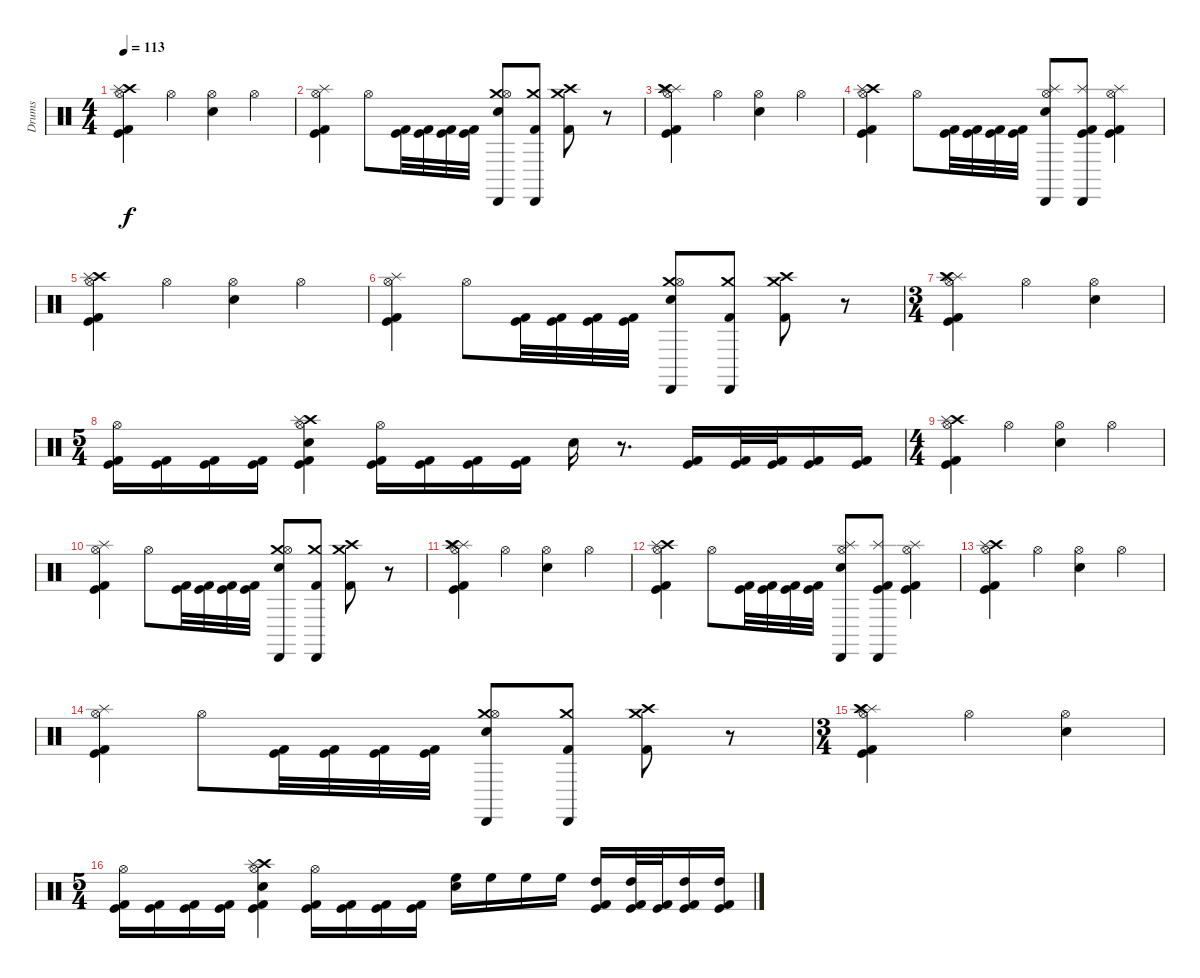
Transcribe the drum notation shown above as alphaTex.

\track ("Drums" "Drums") {instrument percussion}
\staff {score}
\articulation defaults
\ts (4 4)
\tempo 113
\clef neutral
\ks c
("Hi-Hat (open)" "Crash high (hit)" "Kick (hit)" "Kick (hit) 2" "Splash (hit)").4{dy f} "Hi-Hat (open)".4 ("Hi-Hat (open)" "Electric Snare (hit)").4 "Hi-Hat (open)".4 |
("Hi-Hat (open)" "Kick (hit)" "Kick (hit) 2" "Splash (hit)").4 "Hi-Hat (open)".8 ("Kick (hit)" "Kick (hit) 2").32 ("Kick (hit)" "Kick (hit) 2").32 ("Kick (hit)" "Kick (hit) 2").32 ("Kick (hit)" "Kick (hit) 2").32 ("Crash medium (hit)" "Electric Snare (hit)" "Hi-Hat (open)" "Cabasa (hit)").8 ("Kick (hit) 2" "Crash medium (hit)" "Cabasa (hit)").8 ("Kick (hit) 2" "Crash high (hit)" "Crash medium (hit)").8 r.8 |
("Splash (hit)" "Kick (hit)" "Kick (hit) 2" "Crash high (hit)" "Splash (hit)" "Hi-Hat (open)").4 "Hi-Hat (open)".4 ("Electric Snare (hit)" "Hi-Hat (open)").4 "Hi-Hat (open)".4 |
("Hi-Hat (open)" "Kick (hit)" "Kick (hit) 2" "Crash high (hit)" "Splash (hit)").4 "Hi-Hat (open)".8 ("Kick (hit) 2" "Kick (hit)").32 ("Kick (hit) 2" "Kick (hit)").32 ("Kick (hit) 2" "Kick (hit)").32 ("Kick (hit) 2" "Kick (hit)").32 ("Cabasa (hit)" "Splash (hit)" "Electric Snare (hit)" "Hi-Hat (open)").8 ("Kick (hit)" "Kick (hit) 2" "Cabasa (hit)" "Splash (hit)").8 ("Kick (hit)" "Kick (hit) 2" "Splash (hit)" "Hi-Hat (open)").4 |
("Hi-Hat (open)" "Crash high (hit)" "Kick (hit)" "Kick (hit) 2" "Splash (hit)").4 "Hi-Hat (open)".4 ("Hi-Hat (open)" "Electric Snare (hit)").4 "Hi-Hat (open)".4 |
("Hi-Hat (open)" "Kick (hit)" "Kick (hit) 2" "Splash (hit)").4 "Hi-Hat (open)".8 ("Kick (hit)" "Kick (hit) 2").32 ("Kick (hit)" "Kick (hit) 2").32 ("Kick (hit)" "Kick (hit) 2").32 ("Kick (hit)" "Kick (hit) 2").32 ("Crash medium (hit)" "Electric Snare (hit)" "Hi-Hat (open)" "Cabasa (hit)").8 ("Kick (hit) 2" "Crash medium (hit)" "Cabasa (hit)").8 ("Kick (hit) 2" "Crash high (hit)" "Crash medium (hit)").8 r.8 |
\ts (3 4)
("Splash (hit)" "Kick (hit)" "Kick (hit) 2" "Crash high (hit)" "Splash (hit)" "Hi-Hat (open)").4 "Hi-Hat (open)".4 ("Electric Snare (hit)" "Hi-Hat (open)").4 |
\ts (5 4)
("Kick (hit)" "Kick (hit) 2" "Hi-Hat (open)").16 ("Kick (hit)" "Kick (hit) 2").16 ("Kick (hit)" "Kick (hit) 2").16 ("Kick (hit)" "Kick (hit) 2").16 ("Electric Snare (hit)" "Hi-Hat (open)" "Kick (hit)" "Kick (hit) 2" "Crash high (hit)" "Splash (hit)").4 ("Kick (hit)" "Kick (hit) 2" "Hi-Hat (open)").16 ("Kick (hit)" "Kick (hit) 2").16 ("Kick (hit)" "Kick (hit) 2").16 ("Kick (hit)" "Kick (hit) 2").16 "Electric Snare (hit)".16 r.8{d} ("Kick (hit)" "Kick (hit) 2").16 ("Kick (hit)" "Kick (hit) 2").32 ("Kick (hit)" "Kick (hit) 2").32 ("Kick (hit)" "Kick (hit) 2").16 ("Kick (hit)" "Kick (hit) 2").16 |
\ts (4 4)
("Hi-Hat (open)" "Crash high (hit)" "Kick (hit)" "Kick (hit) 2" "Splash (hit)").4 "Hi-Hat (open)".4 ("Hi-Hat (open)" "Electric Snare (hit)").4 "Hi-Hat (open)".4 |
("Hi-Hat (open)" "Kick (hit)" "Kick (hit) 2" "Splash (hit)").4 "Hi-Hat (open)".8 ("Kick (hit)" "Kick (hit) 2").32 ("Kick (hit)" "Kick (hit) 2").32 ("Kick (hit)" "Kick (hit) 2").32 ("Kick (hit)" "Kick (hit) 2").32 ("Crash medium (hit)" "Electric Snare (hit)" "Hi-Hat (open)" "Cabasa (hit)").8 ("Kick (hit) 2" "Crash medium (hit)" "Cabasa (hit)").8 ("Kick (hit) 2" "Crash high (hit)" "Crash medium (hit)").8 r.8 |
("Splash (hit)" "Kick (hit)" "Kick (hit) 2" "Crash high (hit)" "Splash (hit)" "Hi-Hat (open)").4 "Hi-Hat (open)".4 ("Electric Snare (hit)" "Hi-Hat (open)").4 "Hi-Hat (open)".4 |
("Hi-Hat (open)" "Kick (hit)" "Kick (hit) 2" "Crash high (hit)" "Splash (hit)").4 "Hi-Hat (open)".8 ("Kick (hit) 2" "Kick (hit)").32 ("Kick (hit) 2" "Kick (hit)").32 ("Kick (hit) 2" "Kick (hit)").32 ("Kick (hit) 2" "Kick (hit)").32 ("Cabasa (hit)" "Splash (hit)" "Electric Snare (hit)" "Hi-Hat (open)").8 ("Kick (hit)" "Kick (hit) 2" "Cabasa (hit)" "Splash (hit)").8 ("Kick (hit)" "Kick (hit) 2" "Splash (hit)" "Hi-Hat (open)").4 |
("Hi-Hat (open)" "Crash high (hit)" "Kick (hit)" "Kick (hit) 2" "Splash (hit)").4 "Hi-Hat (open)".4 ("Hi-Hat (open)" "Electric Snare (hit)").4 "Hi-Hat (open)".4 |
("Hi-Hat (open)" "Kick (hit)" "Kick (hit) 2" "Splash (hit)").4 "Hi-Hat (open)".8 ("Kick (hit)" "Kick (hit) 2").32 ("Kick (hit)" "Kick (hit) 2").32 ("Kick (hit)" "Kick (hit) 2").32 ("Kick (hit)" "Kick (hit) 2").32 ("Crash medium (hit)" "Electric Snare (hit)" "Hi-Hat (open)" "Cabasa (hit)").8 ("Kick (hit) 2" "Crash medium (hit)" "Cabasa (hit)").8 ("Kick (hit) 2" "Crash high (hit)" "Crash medium (hit)").8 r.8 |
\ts (3 4)
("Splash (hit)" "Kick (hit)" "Kick (hit) 2" "Crash high (hit)" "Splash (hit)" "Hi-Hat (open)").4 "Hi-Hat (open)".4 ("Electric Snare (hit)" "Hi-Hat (open)").4 |
\ts (5 4)
("Kick (hit)" "Kick (hit) 2" "Hi-Hat (open)").16 ("Kick (hit)" "Kick (hit) 2").16 ("Kick (hit)" "Kick (hit) 2").16 ("Kick (hit)" "Kick (hit) 2").16 ("Electric Snare (hit)" "Hi-Hat (open)" "Kick (hit)" "Kick (hit) 2" "Crash high (hit)" "Splash (hit)").4 ("Kick (hit)" "Kick (hit) 2" "Hi-Hat (open)").16 ("Kick (hit)" "Kick (hit) 2").16 ("Kick (hit)" "Kick (hit) 2").16 ("Kick (hit)" "Kick (hit) 2").16 ("High Floor Tom (hit)" "Electric Snare (hit)").16 "High Floor Tom (hit)".16 "High Floor Tom (hit)".16 "High Floor Tom (hit)".16 ("High Tom (hit)" "Kick (hit)" "Kick (hit) 2").16 ("High Tom (hit)" "Kick (hit)" "Kick (hit) 2").32 ("Kick (hit)" "Kick (hit) 2").32 ("High Tom (hit)" "Kick (hit)" "Kick (hit) 2").16 ("High Tom (hit)" "Kick (hit)" "Kick (hit) 2").16
